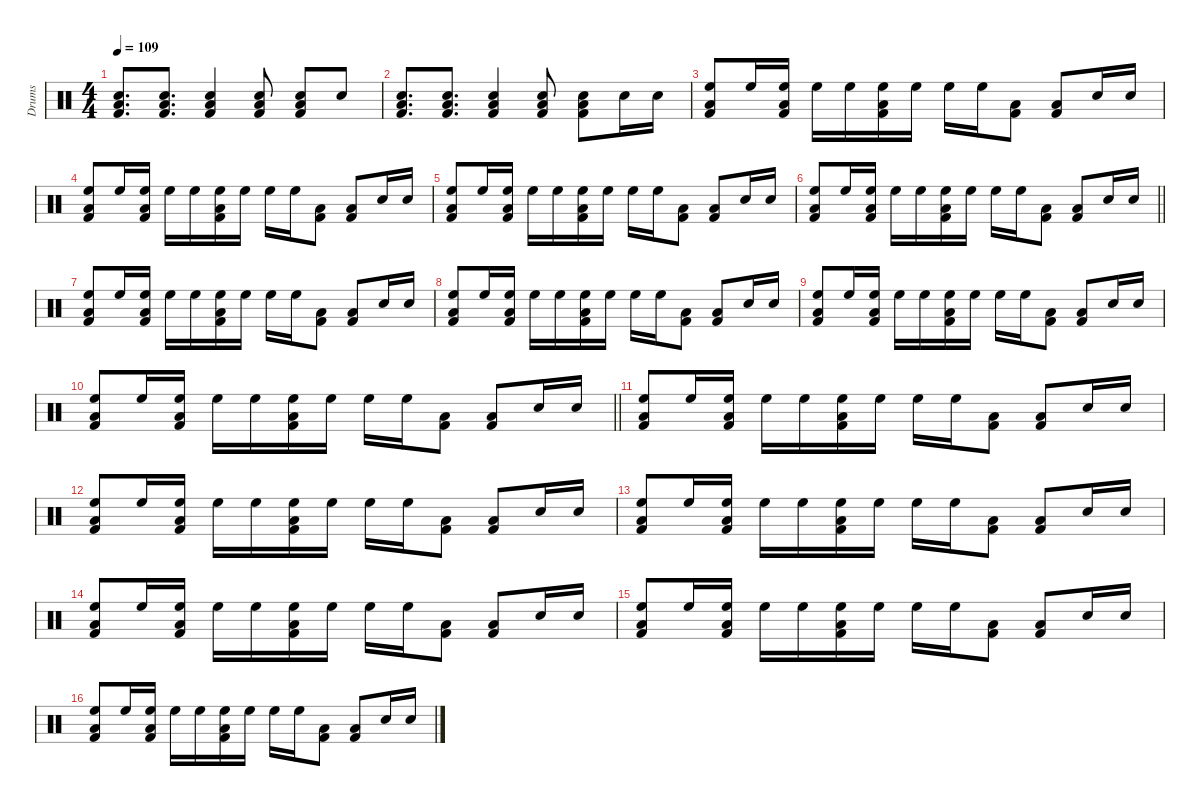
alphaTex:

\defaultSystemsLayout 4
\hideDynamics
\bracketExtendMode nobrackets
\otherSystemsTrackNameOrientation horizontal
\track ("Drums" "Drums") {instrument percussion}
\staff {score}
\articulation defaults
\ts (4 4)
\tempo 109
\clef neutral
\scale
0.528409
\ks c
("Kick (hit) 2" "Low Tom (hit)" "Snare (hit) 2").8{d dy mp beam Up} ("Kick (hit) 2" "Low Tom (hit)" "Snare (hit) 2").8{d beam Up} ("Kick (hit) 2" "Low Tom (hit)" "Snare (hit) 2").4{beam Up} ("Kick (hit) 2" "Low Tom (hit)" "Snare (hit) 2").8{beam Up} ("Kick (hit) 2" "Low Tom (hit)" "Snare (hit) 2").8{beam Up} "Snare (hit) 2".8{beam Up} |
\scale
0.471591 ("Kick (hit) 2" "Low Tom (hit)" "Snare (hit) 2").8{d beam Up} ("Kick (hit) 2" "Low Tom (hit)" "Snare (hit) 2").8{d beam Up} ("Kick (hit) 2" "Low Tom (hit)" "Snare (hit) 2").4{beam Up} ("Kick (hit) 2" "Low Tom (hit)" "Snare (hit) 2").8{beam Up} ("Kick (hit) 2" "Low Tom (hit)" "Snare (hit) 2").8{beam Down} "Snare (hit) 2".16{beam Down} "Snare (hit) 2".16{beam Down} |
\scale
0.5 ("Kick (hit) 2" "Low Tom (hit)" "High Floor Tom (hit)").8{beam Up} "High Floor Tom (hit)".16{beam Up} ("Kick (hit) 2" "Low Tom (hit)" "High Floor Tom (hit)").16{beam Up} "High Floor Tom (hit)".16{beam Down} "High Floor Tom (hit)".16{beam Down} ("Kick (hit) 2" "Low Tom (hit)" "High Floor Tom (hit)").16{beam Down} "High Floor Tom (hit)".16{beam Down} "High Floor Tom (hit)".16{beam Down} "High Floor Tom (hit)".16{beam Down} ("Kick (hit) 2" "Low Tom (hit)").8{beam Down} ("Kick (hit) 2" "Low Tom (hit)").8{beam Up} "Snare (hit) 2".16{beam Up} "Snare (hit) 2".16{beam Up} |
\scale
0.5 ("Kick (hit) 2" "Low Tom (hit)" "High Floor Tom (hit)").8{beam Up} "High Floor Tom (hit)".16{beam Up} ("Kick (hit) 2" "Low Tom (hit)" "High Floor Tom (hit)").16{beam Up} "High Floor Tom (hit)".16{beam Down} "High Floor Tom (hit)".16{beam Down} ("Kick (hit) 2" "Low Tom (hit)" "High Floor Tom (hit)").16{beam Down} "High Floor Tom (hit)".16{beam Down} "High Floor Tom (hit)".16{beam Down} "High Floor Tom (hit)".16{beam Down} ("Kick (hit) 2" "Low Tom (hit)").8{beam Down} ("Kick (hit) 2" "Low Tom (hit)").8{beam Up} "Snare (hit) 2".16{beam Up} "Snare (hit) 2".16{beam Up} |
\scale
0.5 ("Kick (hit) 2" "Low Tom (hit)" "High Floor Tom (hit)").8{beam Up} "High Floor Tom (hit)".16{beam Up} ("Kick (hit) 2" "Low Tom (hit)" "High Floor Tom (hit)").16{beam Up} "High Floor Tom (hit)".16{beam Down} "High Floor Tom (hit)".16{beam Down} ("Kick (hit) 2" "Low Tom (hit)" "High Floor Tom (hit)").16{beam Down} "High Floor Tom (hit)".16{beam Down} "High Floor Tom (hit)".16{beam Down} "High Floor Tom (hit)".16{beam Down} ("Kick (hit) 2" "Low Tom (hit)").8{beam Down} ("Kick (hit) 2" "Low Tom (hit)").8{beam Up} "Snare (hit) 2".16{beam Up} "Snare (hit) 2".16{beam Up} |
\scale
0.5
\barLineRight lightlight
("Kick (hit) 2" "Low Tom (hit)" "High Floor Tom (hit)").8{beam Up} "High Floor Tom (hit)".16{beam Up} ("Kick (hit) 2" "Low Tom (hit)" "High Floor Tom (hit)").16{beam Up} "High Floor Tom (hit)".16{beam Down} "High Floor Tom (hit)".16{beam Down} ("Kick (hit) 2" "Low Tom (hit)" "High Floor Tom (hit)").16{beam Down} "High Floor Tom (hit)".16{beam Down} "High Floor Tom (hit)".16{beam Down} "High Floor Tom (hit)".16{beam Down} ("Kick (hit) 2" "Low Tom (hit)").8{beam Down} ("Kick (hit) 2" "Low Tom (hit)").8{beam Up} "Snare (hit) 2".16{beam Up} "Snare (hit) 2".16{beam Up} |
\scale
0.5 ("Kick (hit) 2" "Low Tom (hit)" "High Floor Tom (hit)").8{beam Up} "High Floor Tom (hit)".16{beam Up} ("Kick (hit) 2" "Low Tom (hit)" "High Floor Tom (hit)").16{beam Up} "High Floor Tom (hit)".16{beam Down} "High Floor Tom (hit)".16{beam Down} ("Kick (hit) 2" "Low Tom (hit)" "High Floor Tom (hit)").16{beam Down} "High Floor Tom (hit)".16{beam Down} "High Floor Tom (hit)".16{beam Down} "High Floor Tom (hit)".16{beam Down} ("Kick (hit) 2" "Low Tom (hit)").8{beam Down} ("Kick (hit) 2" "Low Tom (hit)").8{beam Up} "Snare (hit) 2".16{beam Up} "Snare (hit) 2".16{beam Up} |
\scale
0.5 ("Kick (hit) 2" "Low Tom (hit)" "High Floor Tom (hit)").8{beam Up} "High Floor Tom (hit)".16{beam Up} ("Kick (hit) 2" "Low Tom (hit)" "High Floor Tom (hit)").16{beam Up} "High Floor Tom (hit)".16{beam Down} "High Floor Tom (hit)".16{beam Down} ("Kick (hit) 2" "Low Tom (hit)" "High Floor Tom (hit)").16{beam Down} "High Floor Tom (hit)".16{beam Down} "High Floor Tom (hit)".16{beam Down} "High Floor Tom (hit)".16{beam Down} ("Kick (hit) 2" "Low Tom (hit)").8{beam Down} ("Kick (hit) 2" "Low Tom (hit)").8{beam Up} "Snare (hit) 2".16{beam Up} "Snare (hit) 2".16{beam Up} |
\scale
0.5 ("Kick (hit) 2" "Low Tom (hit)" "High Floor Tom (hit)").8{beam Up} "High Floor Tom (hit)".16{beam Up} ("Kick (hit) 2" "Low Tom (hit)" "High Floor Tom (hit)").16{beam Up} "High Floor Tom (hit)".16{beam Down} "High Floor Tom (hit)".16{beam Down} ("Kick (hit) 2" "Low Tom (hit)" "High Floor Tom (hit)").16{beam Down} "High Floor Tom (hit)".16{beam Down} "High Floor Tom (hit)".16{beam Down} "High Floor Tom (hit)".16{beam Down} ("Kick (hit) 2" "Low Tom (hit)").8{beam Down} ("Kick (hit) 2" "Low Tom (hit)").8{beam Up} "Snare (hit) 2".16{beam Up} "Snare (hit) 2".16{beam Up} |
\scale
0.5
\barLineRight lightlight
("Kick (hit) 2" "Low Tom (hit)" "High Floor Tom (hit)").8{beam Up} "High Floor Tom (hit)".16{beam Up} ("Kick (hit) 2" "Low Tom (hit)" "High Floor Tom (hit)").16{beam Up} "High Floor Tom (hit)".16{beam Down} "High Floor Tom (hit)".16{beam Down} ("Kick (hit) 2" "Low Tom (hit)" "High Floor Tom (hit)").16{beam Down} "High Floor Tom (hit)".16{beam Down} "High Floor Tom (hit)".16{beam Down} "High Floor Tom (hit)".16{beam Down} ("Kick (hit) 2" "Low Tom (hit)").8{beam Down} ("Kick (hit) 2" "Low Tom (hit)").8{beam Up} "Snare (hit) 2".16{beam Up} "Snare (hit) 2".16{beam Up} |
\scale
0.5 ("Kick (hit) 2" "Low Tom (hit)" "High Floor Tom (hit)").8{beam Up} "High Floor Tom (hit)".16{beam Up} ("Kick (hit) 2" "Low Tom (hit)" "High Floor Tom (hit)").16{beam Up} "High Floor Tom (hit)".16{beam Down} "High Floor Tom (hit)".16{beam Down} ("Kick (hit) 2" "Low Tom (hit)" "High Floor Tom (hit)").16{beam Down} "High Floor Tom (hit)".16{beam Down} "High Floor Tom (hit)".16{beam Down} "High Floor Tom (hit)".16{beam Down} ("Kick (hit) 2" "Low Tom (hit)").8{beam Down} ("Kick (hit) 2" "Low Tom (hit)").8{beam Up} "Snare (hit) 2".16{beam Up} "Snare (hit) 2".16{beam Up} |
\scale
0.5 ("Kick (hit) 2" "Low Tom (hit)" "High Floor Tom (hit)").8{beam Up} "High Floor Tom (hit)".16{beam Up} ("Kick (hit) 2" "Low Tom (hit)" "High Floor Tom (hit)").16{beam Up} "High Floor Tom (hit)".16{beam Down} "High Floor Tom (hit)".16{beam Down} ("Kick (hit) 2" "Low Tom (hit)" "High Floor Tom (hit)").16{beam Down} "High Floor Tom (hit)".16{beam Down} "High Floor Tom (hit)".16{beam Down} "High Floor Tom (hit)".16{beam Down} ("Kick (hit) 2" "Low Tom (hit)").8{beam Down} ("Kick (hit) 2" "Low Tom (hit)").8{beam Up} "Snare (hit) 2".16{beam Up} "Snare (hit) 2".16{beam Up} |
\scale
0.5 ("Kick (hit) 2" "Low Tom (hit)" "High Floor Tom (hit)").8{beam Up} "High Floor Tom (hit)".16{beam Up} ("Kick (hit) 2" "Low Tom (hit)" "High Floor Tom (hit)").16{beam Up} "High Floor Tom (hit)".16{beam Down} "High Floor Tom (hit)".16{beam Down} ("Kick (hit) 2" "Low Tom (hit)" "High Floor Tom (hit)").16{beam Down} "High Floor Tom (hit)".16{beam Down} "High Floor Tom (hit)".16{beam Down} "High Floor Tom (hit)".16{beam Down} ("Kick (hit) 2" "Low Tom (hit)").8{beam Down} ("Kick (hit) 2" "Low Tom (hit)").8{beam Up} "Snare (hit) 2".16{beam Up} "Snare (hit) 2".16{beam Up} |
("Kick (hit) 2" "Low Tom (hit)" "High Floor Tom (hit)").8{beam Up} "High Floor Tom (hit)".16{beam Up} ("Kick (hit) 2" "Low Tom (hit)" "High Floor Tom (hit)").16{beam Up} "High Floor Tom (hit)".16{beam Down} "High Floor Tom (hit)".16{beam Down} ("Kick (hit) 2" "Low Tom (hit)" "High Floor Tom (hit)").16{beam Down} "High Floor Tom (hit)".16{beam Down} "High Floor Tom (hit)".16{beam Down} "High Floor Tom (hit)".16{beam Down} ("Kick (hit) 2" "Low Tom (hit)").8{beam Down} ("Kick (hit) 2" "Low Tom (hit)").8{beam Up} "Snare (hit) 2".16{beam Up} "Snare (hit) 2".16{beam Up} |
\scale
0.5 ("Kick (hit) 2" "Low Tom (hit)" "High Floor Tom (hit)").8{beam Up} "High Floor Tom (hit)".16{beam Up} ("Kick (hit) 2" "Low Tom (hit)" "High Floor Tom (hit)").16{beam Up} "High Floor Tom (hit)".16{beam Down} "High Floor Tom (hit)".16{beam Down} ("Kick (hit) 2" "Low Tom (hit)" "High Floor Tom (hit)").16{beam Down} "High Floor Tom (hit)".16{beam Down} "High Floor Tom (hit)".16{beam Down} "High Floor Tom (hit)".16{beam Down} ("Kick (hit) 2" "Low Tom (hit)").8{beam Down} ("Kick (hit) 2" "Low Tom (hit)").8{beam Up} "Snare (hit) 2".16{beam Up} "Snare (hit) 2".16{beam Up} |
("Kick (hit) 2" "Low Tom (hit)" "High Floor Tom (hit)").8{beam Up} "High Floor Tom (hit)".16{beam Up} ("Kick (hit) 2" "Low Tom (hit)" "High Floor Tom (hit)").16{beam Up} "High Floor Tom (hit)".16{beam Down} "High Floor Tom (hit)".16{beam Down} ("Kick (hit) 2" "Low Tom (hit)" "High Floor Tom (hit)").16{beam Down} "High Floor Tom (hit)".16{beam Down} "High Floor Tom (hit)".16{beam Down} "High Floor Tom (hit)".16{beam Down} ("Kick (hit) 2" "Low Tom (hit)").8{beam Down} ("Kick (hit) 2" "Low Tom (hit)").8{beam Up} "Snare (hit) 2".16{beam Up} "Snare (hit) 2".16{beam Up}
